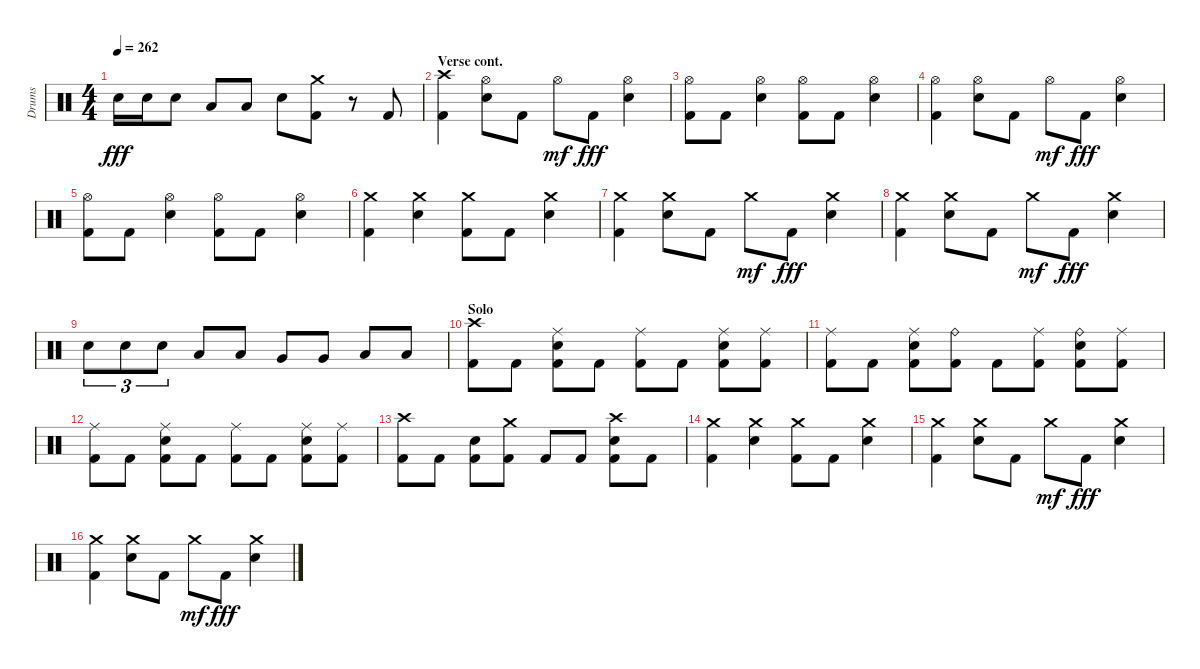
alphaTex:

\track ("Drums" "Drums") {instrument percussion}
\staff {score}
\articulation defaults
\ts (4 4)
\tempo 262
\clef neutral
\ks aminor "Snare (hit) 2".16{dy fff} "Snare (hit) 2".16 "Snare (hit) 2".8 "Low Floor Tom (hit)".8 "Low Floor Tom (hit)".8 "Snare (hit) 2".8
("Kick (hit) 2" "Crash medium (hit)").8 r.8 "Kick (hit) 2".8 |
\section ("" "Verse cont.")
("Kick (hit) 2" "Crash high (hit)").4 ("Snare (hit) 2" "Hi-Hat (open)").8 "Kick (hit) 2".8 "Hi-Hat (open)".8{dy mf} "Kick (hit) 2".8{dy fff} ("Snare (hit) 2" "Hi-Hat (open)").4 |
("Kick (hit) 2" "Hi-Hat (open)").8 "Kick (hit) 2".8 ("Snare (hit) 2" "Hi-Hat (open)").4 ("Kick (hit) 2" "Hi-Hat (open)").8 "Kick (hit) 2".8 ("Snare (hit) 2" "Hi-Hat (open)").4 |
("Kick (hit) 2" "Hi-Hat (open)").4 ("Snare (hit) 2" "Hi-Hat (open)").8 "Kick (hit) 2".8 "Hi-Hat (open)".8{dy mf} "Kick (hit) 2".8{dy fff} ("Snare (hit) 2" "Hi-Hat (open)").4 |
("Kick (hit) 2" "Hi-Hat (open)").8 "Kick (hit) 2".8 ("Snare (hit) 2" "Hi-Hat (open)").4 ("Kick (hit) 2" "Hi-Hat (open)").8 "Kick (hit) 2".8 ("Snare (hit) 2" "Hi-Hat (open)").4 |
("Kick (hit) 2" "Crash medium (hit)").4 ("Snare (hit) 2" "Crash medium (hit)").4 ("Kick (hit) 2" "Crash medium (hit)").8 "Kick (hit) 2".8 ("Snare (hit) 2" "Crash medium (hit)").4 |
("Kick (hit) 2" "Crash medium (hit)").4 ("Snare (hit) 2" "Crash medium (hit)").8 "Kick (hit) 2".8 "Crash medium (hit)".8{dy mf} "Kick (hit) 2".8{dy fff} ("Snare (hit) 2" "Crash medium (hit)").4 |
("Kick (hit) 2" "Crash medium (hit)").4 ("Snare (hit) 2" "Crash medium (hit)").8 "Kick (hit) 2".8 "Crash medium (hit)".8{dy mf} "Kick (hit) 2".8{dy fff} ("Snare (hit) 2" "Crash medium (hit)").4 |
"Snare (hit) 2".8{tu (3 2)} "Snare (hit) 2".8{tu (3 2)} "Snare (hit) 2".8{tu (3 2)} "Low Tom (hit)".8 "Low Tom (hit)".8 "Very Low Tom (hit)".8 "Very Low Tom (hit)".8 "Low Floor Tom (hit)".8 "Low Floor Tom (hit)".8 |
\section ("" "Solo")
("Kick (hit) 2" "Crash high (hit)").8 "Kick (hit) 2".8 ("Kick (hit) 2" "Snare (hit) 2" "Ride (middle)").8 "Kick (hit) 2".8 ("Kick (hit) 2" "Ride (middle)").8 "Kick (hit) 2".8 ("Kick (hit) 2" "Snare (hit) 2" "Ride (middle)").8 ("Kick (hit) 2" "Ride (middle)").8 |
("Kick (hit) 2" "Ride (middle)").8 "Kick (hit) 2".8 ("Kick (hit) 2" "Snare (hit) 2" "Ride (middle)").8 ("Kick (hit) 2" "Ride (bell)").8 "Kick (hit) 2".8 ("Kick (hit) 2" "Ride (middle)").8 ("Kick (hit) 2" "Snare (hit) 2" "Ride (bell)").8 ("Kick (hit) 2" "Ride (middle)").8 |
("Kick (hit) 2" "Ride (middle)").8 "Kick (hit) 2".8 ("Kick (hit) 2" "Snare (hit) 2" "Ride (middle)").8 "Kick (hit) 2".8 ("Kick (hit) 2" "Ride (middle)").8 "Kick (hit) 2".8 ("Snare (hit) 2" "Kick (hit) 2" "Ride (middle)").8 ("Kick (hit) 2" "Ride (middle)").8 |
("Kick (hit) 2" "Crash high (hit)").8 "Kick (hit) 2".8 ("Kick (hit) 2" "Snare (hit) 2").8 ("Kick (hit) 2" "Crash medium (hit)").8 "Kick (hit) 2".8 "Kick (hit) 2".8 ("Kick (hit) 2" "Snare (hit) 2" "Crash high (hit)").8 "Kick (hit) 2".8 |
("Kick (hit) 2" "Crash medium (hit)").4 ("Snare (hit) 2" "Crash medium (hit)").4 ("Kick (hit) 2" "Crash medium (hit)").8 "Kick (hit) 2".8 ("Snare (hit) 2" "Crash medium (hit)").4 |
("Kick (hit) 2" "Crash medium (hit)").4 ("Snare (hit) 2" "Crash medium (hit)").8 "Kick (hit) 2".8 "Crash medium (hit)".8{dy mf} "Kick (hit) 2".8{dy fff} ("Snare (hit) 2" "Crash medium (hit)").4 |
("Kick (hit) 2" "Crash medium (hit)").4 ("Snare (hit) 2" "Crash medium (hit)").8 "Kick (hit) 2".8 "Crash medium (hit)".8{dy mf} "Kick (hit) 2".8{dy fff} ("Snare (hit) 2" "Crash medium (hit)").4
